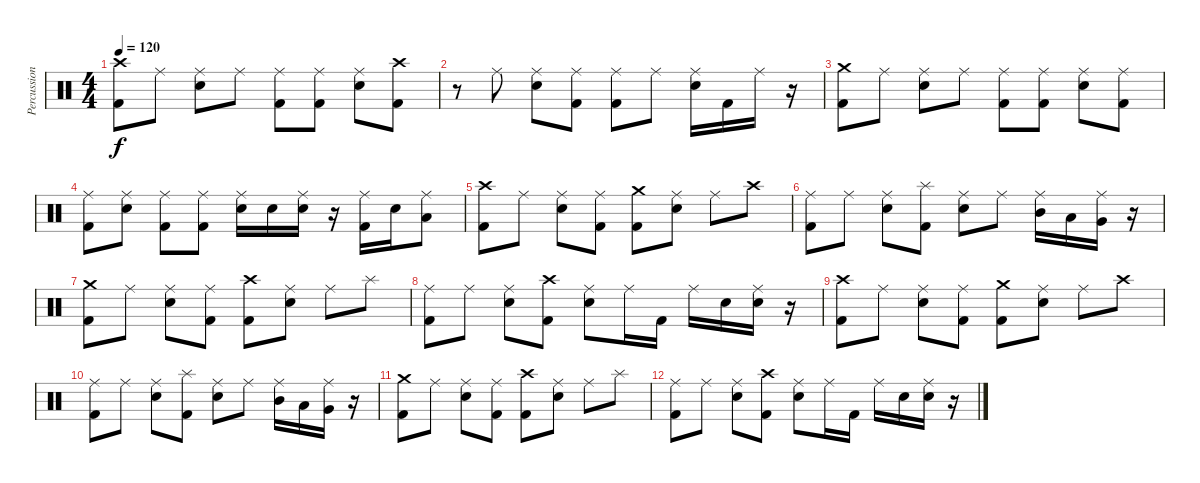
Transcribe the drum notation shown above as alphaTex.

\track ("Percussion" "Percussion") {instrument percussion}
\staff {score}
\articulation defaults
\ts (4 4)
\tempo 120
\clef neutral
\ks c
("Crash high (hit)" "Kick (hit) 2").8{dy f} "Ride (middle)".8 ("Ride (middle)" "Snare (hit) 2").8 "Ride (middle)".8 ("Ride (middle)" "Kick (hit) 2").8 ("Ride (middle)" "Kick (hit) 2").8 ("Ride (middle)" "Snare (hit) 2").8 ("Crash high (hit)" "Kick (hit) 2").8 |
r.8 "Ride (middle)".8 ("Ride (middle)" "Snare (hit) 2").8 ("Ride (middle)" "Kick (hit) 2").8 ("Ride (middle)" "Kick (hit) 2").8 "Ride (middle)".8 ("Ride (middle)" "Snare (hit) 2").16 "Kick (hit) 2".16 "Ride (middle)".16 r.16 |
("Crash medium (hit)" "Kick (hit) 2").8 "Ride (middle)".8 ("Ride (middle)" "Snare (hit) 2").8 "Ride (middle)".8 ("Ride (middle)" "Kick (hit) 2").8 ("Ride (middle)" "Kick (hit) 2").8 ("Ride (middle)" "Snare (hit) 2").8 ("Ride (middle)" "Kick (hit) 2").8 |
("Ride (middle)" "Kick (hit) 2").8 ("Ride (middle)" "Snare (hit) 2").8 ("Ride (middle)" "Kick (hit) 2").8 ("Ride (middle)" "Kick (hit) 2").8 ("Ride (middle)" "Snare (hit) 2").16 "Snare (hit) 2".16 ("Ride (middle)" "Snare (hit) 2").16 r.16 ("Ride (middle)" "Kick (hit) 2").16 "Snare (hit) 2".16 ("Ride (middle)" "Low Tom (hit)").8 |
("Crash high (hit)" "Kick (hit) 2").8 "Ride (middle)".8 ("Ride (middle)" "Snare (hit) 2").8 ("Ride (middle)" "Kick (hit) 2").8 ("Crash medium (hit)" "Kick (hit) 2").8 ("Ride (middle)" "Snare (hit) 2").8 "Ride (middle)".8 "Crash high (hit)".8 |
("Ride (middle)" "Kick (hit) 2").8 "Ride (middle)".8 ("Ride (middle)" "Snare (hit) 2").8 ("Splash (hit)" "Kick (hit) 2").8 ("Ride (middle)" "Snare (hit) 2").8 "Ride (middle)".8 ("Ride (middle)" "Mid Tom (hit)").16 "Low Tom (hit)".16 ("Ride (middle)" "Very Low Tom (hit)").16 r.16 |
("Crash medium (hit)" "Kick (hit) 2").8 "Ride (middle)".8 ("Ride (middle)" "Snare (hit) 2").8 ("Ride (middle)" "Kick (hit) 2").8 ("Crash high (hit)" "Kick (hit) 2").8 ("Ride (middle)" "Snare (hit) 2").8 "Ride (middle)".8 "Splash (hit)".8 |
("Ride (middle)" "Kick (hit) 2").8 "Ride (middle)".8 ("Ride (middle)" "Snare (hit) 2").8 ("Crash high (hit)" "Kick (hit) 2").8 ("Ride (middle)" "Snare (hit) 2").8 "Ride (middle)".16 "Kick (hit) 2".16 "Ride (middle)".16 "Snare (hit) 2".16 ("Ride (middle)" "Snare (hit) 2").16 r.16 |
("Crash high (hit)" "Kick (hit) 2").8 "Ride (middle)".8 ("Ride (middle)" "Snare (hit) 2").8 ("Ride (middle)" "Kick (hit) 2").8 ("Crash medium (hit)" "Kick (hit) 2").8 ("Ride (middle)" "Snare (hit) 2").8 "Ride (middle)".8 "Crash high (hit)".8 |
("Ride (middle)" "Kick (hit) 2").8 "Ride (middle)".8 ("Ride (middle)" "Snare (hit) 2").8 ("Splash (hit)" "Kick (hit) 2").8 ("Ride (middle)" "Snare (hit) 2").8 "Ride (middle)".8 ("Ride (middle)" "Mid Tom (hit)").16 "Low Tom (hit)".16 ("Ride (middle)" "Very Low Tom (hit)").16 r.16 |
("Crash medium (hit)" "Kick (hit) 2").8 "Ride (middle)".8 ("Ride (middle)" "Snare (hit) 2").8 ("Ride (middle)" "Kick (hit) 2").8 ("Crash high (hit)" "Kick (hit) 2").8 ("Ride (middle)" "Snare (hit) 2").8 "Ride (middle)".8 "Splash (hit)".8 |
("Ride (middle)" "Kick (hit) 2").8 "Ride (middle)".8 ("Ride (middle)" "Snare (hit) 2").8 ("Crash high (hit)" "Kick (hit) 2").8 ("Ride (middle)" "Snare (hit) 2").8 "Ride (middle)".16 "Kick (hit) 2".16 "Ride (middle)".16 "Snare (hit) 2".16 ("Ride (middle)" "Snare (hit) 2").16 r.16
